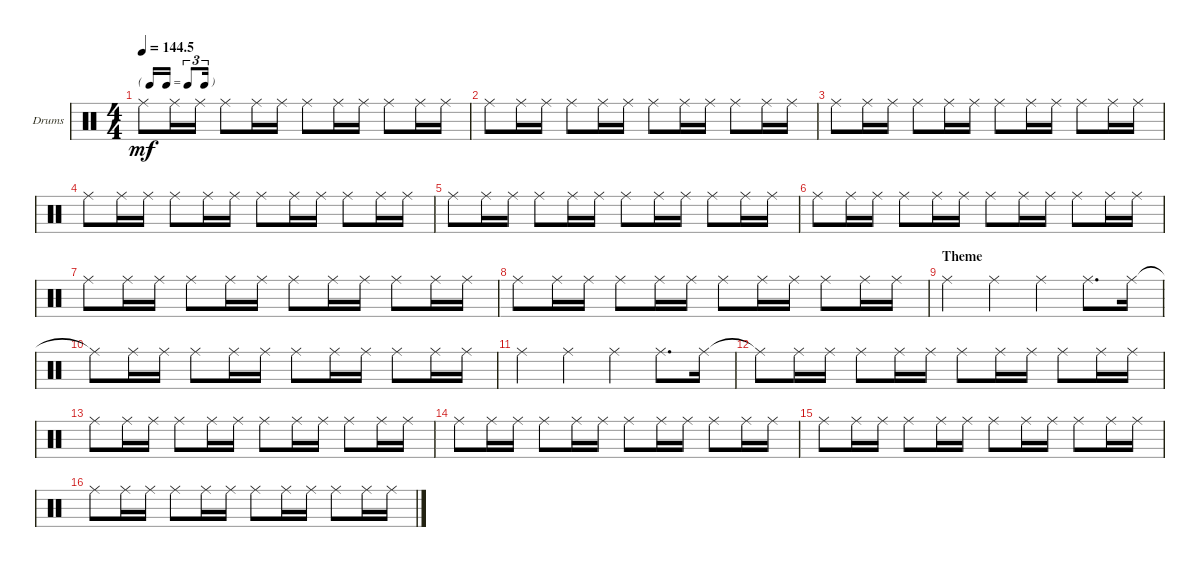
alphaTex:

\defaultSystemsLayout 4
\bracketExtendMode groupsimilarinstruments
\firstSystemTrackNameOrientation horizontal
\otherSystemsTrackNameOrientation horizontal
\track ("Drumkit" "Drums") {instrument percussion}
\staff {score}
\articulation defaults
\ts (4 4)
\tf triplet16th
\tempo
144.5
\accidentals auto
\clef neutral
\ottava regular
\simile none
\scale
0.5
\ks c "Ride (middle)".8{dy mf} "Ride (middle)".16 "Ride (middle)".16 "Ride (middle)".8 "Ride (middle)".16 "Ride (middle)".16 "Ride (middle)".8 "Ride (middle)".16 "Ride (middle)".16 "Ride (middle)".8 "Ride (middle)".16 "Ride (middle)".16
|
\scale
0.5 "Ride (middle)".8 "Ride (middle)".16 "Ride (middle)".16 "Ride (middle)".8 "Ride (middle)".16 "Ride (middle)".16 "Ride (middle)".8 "Ride (middle)".16 "Ride (middle)".16 "Ride (middle)".8 "Ride (middle)".16 "Ride (middle)".16 |
\scale
0.5 "Ride (middle)".8 "Ride (middle)".16 "Ride (middle)".16 "Ride (middle)".8 "Ride (middle)".16 "Ride (middle)".16 "Ride (middle)".8 "Ride (middle)".16 "Ride (middle)".16 "Ride (middle)".8 "Ride (middle)".16 "Ride (middle)".16 |
\scale
0.5 "Ride (middle)".8 "Ride (middle)".16 "Ride (middle)".16 "Ride (middle)".8 "Ride (middle)".16 "Ride (middle)".16 "Ride (middle)".8 "Ride (middle)".16 "Ride (middle)".16 "Ride (middle)".8 "Ride (middle)".16 "Ride (middle)".16 |
\scale
0.5 "Ride (middle)".8 "Ride (middle)".16 "Ride (middle)".16 "Ride (middle)".8 "Ride (middle)".16 "Ride (middle)".16 "Ride (middle)".8 "Ride (middle)".16 "Ride (middle)".16 "Ride (middle)".8 "Ride (middle)".16 "Ride (middle)".16 |
\scale
0.5 "Ride (middle)".8 "Ride (middle)".16 "Ride (middle)".16 "Ride (middle)".8 "Ride (middle)".16 "Ride (middle)".16 "Ride (middle)".8 "Ride (middle)".16 "Ride (middle)".16 "Ride (middle)".8 "Ride (middle)".16 "Ride (middle)".16 |
\scale
0.5 "Ride (middle)".8 "Ride (middle)".16 "Ride (middle)".16 "Ride (middle)".8 "Ride (middle)".16 "Ride (middle)".16 "Ride (middle)".8 "Ride (middle)".16 "Ride (middle)".16 "Ride (middle)".8 "Ride (middle)".16 "Ride (middle)".16 |
\scale
0.5 "Ride (middle)".8 "Ride (middle)".16 "Ride (middle)".16 "Ride (middle)".8 "Ride (middle)".16 "Ride (middle)".16 "Ride (middle)".8 "Ride (middle)".16 "Ride (middle)".16 "Ride (middle)".8 "Ride (middle)".16 "Ride (middle)".16 |
\section ("" "Theme")
\scale
0.5 "Ride (middle)".4 "Ride (middle)".4 "Ride (middle)".4 "Ride (middle)".8{d} "Ride (middle)".16 |
\scale
0.5 "Ride (middle)"{t}.8 "Ride (middle)".16 "Ride (middle)".16 "Ride (middle)".8 "Ride (middle)".16 "Ride (middle)".16 "Ride (middle)".8 "Ride (middle)".16 "Ride (middle)".16 "Ride (middle)".8 "Ride (middle)".16 "Ride (middle)".16 |
\scale
0.5 "Ride (middle)".4 "Ride (middle)".4 "Ride (middle)".4 "Ride (middle)".8{d} "Ride (middle)".16 |
\scale
0.5 "Ride (middle)"{t}.8 "Ride (middle)".16 "Ride (middle)".16 "Ride (middle)".8 "Ride (middle)".16 "Ride (middle)".16 "Ride (middle)".8 "Ride (middle)".16 "Ride (middle)".16 "Ride (middle)".8 "Ride (middle)".16 "Ride (middle)".16 |
\scale
0.5 "Ride (middle)".8 "Ride (middle)".16 "Ride (middle)".16 "Ride (middle)".8 "Ride (middle)".16 "Ride (middle)".16 "Ride (middle)".8 "Ride (middle)".16 "Ride (middle)".16 "Ride (middle)".8 "Ride (middle)".16 "Ride (middle)".16 |
\scale
0.5 "Ride (middle)".8 "Ride (middle)".16 "Ride (middle)".16 "Ride (middle)".8 "Ride (middle)".16 "Ride (middle)".16 "Ride (middle)".8 "Ride (middle)".16 "Ride (middle)".16 "Ride (middle)".8 "Ride (middle)".16 "Ride (middle)".16 |
\scale
0.5 "Ride (middle)".8 "Ride (middle)".16 "Ride (middle)".16 "Ride (middle)".8 "Ride (middle)".16 "Ride (middle)".16 "Ride (middle)".8 "Ride (middle)".16 "Ride (middle)".16 "Ride (middle)".8 "Ride (middle)".16 "Ride (middle)".16 |
\scale
0.5 "Ride (middle)".8 "Ride (middle)".16 "Ride (middle)".16 "Ride (middle)".8 "Ride (middle)".16 "Ride (middle)".16 "Ride (middle)".8 "Ride (middle)".16 "Ride (middle)".16 "Ride (middle)".8 "Ride (middle)".16 "Ride (middle)".16
